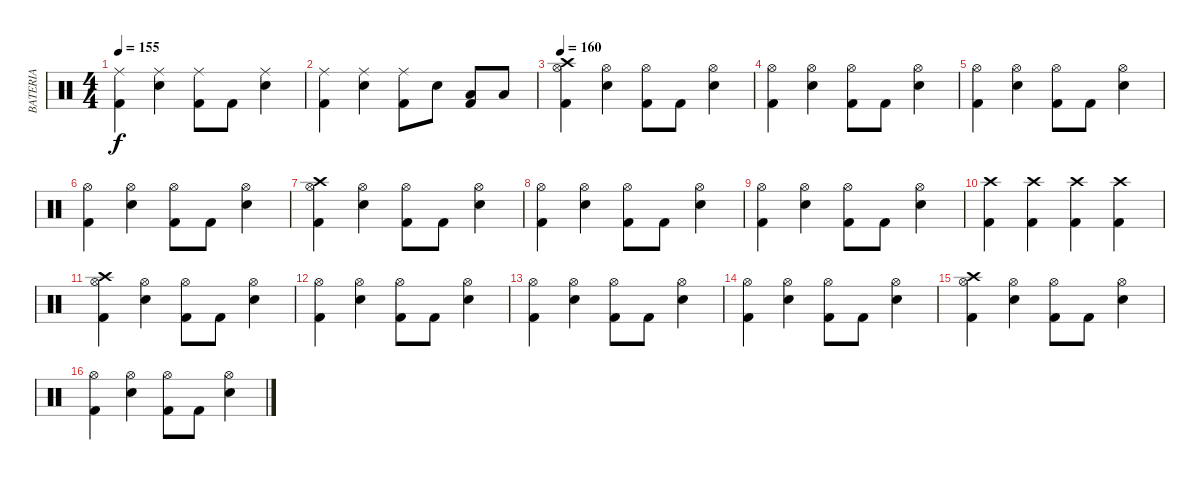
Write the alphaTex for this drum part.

\track ("BATERIA" "BATERIA") {instrument percussion}
\staff {score}
\articulation defaults
\ts (4 4)
\tempo 155
\clef neutral
\ks c
("Ride (middle)" "Kick (hit) 2").4{dy f} ("Ride (middle)" "Snare (hit) 2").4 ("Ride (middle)" "Kick (hit) 2").8 "Kick (hit) 2".8 ("Ride (middle)" "Snare (hit) 2").4 |
("Ride (middle)" "Kick (hit) 2").4 ("Ride (middle)" "Snare (hit) 2").4 ("Ride (middle)" "Kick (hit) 2").8 "Snare (hit) 2".8 ("Low Floor Tom (hit)" "Kick (hit) 2").8 "Low Floor Tom (hit)".8 |
\tempo 160
("Crash high (hit)" "Hi-Hat (open)" "Kick (hit) 2").4 ("Hi-Hat (open)" "Snare (hit) 2").4 ("Hi-Hat (open)" "Kick (hit) 2").8 "Kick (hit) 2".8 ("Hi-Hat (open)" "Snare (hit) 2").4 |
("Hi-Hat (open)" "Kick (hit) 2").4 ("Hi-Hat (open)" "Snare (hit) 2").4 ("Hi-Hat (open)" "Kick (hit) 2").8 "Kick (hit) 2".8 ("Hi-Hat (open)" "Snare (hit) 2").4 |
("Hi-Hat (open)" "Kick (hit) 2").4 ("Hi-Hat (open)" "Snare (hit) 2").4 ("Hi-Hat (open)" "Kick (hit) 2").8 "Kick (hit) 2".8 ("Hi-Hat (open)" "Snare (hit) 2").4 |
("Hi-Hat (open)" "Kick (hit) 2").4 ("Hi-Hat (open)" "Snare (hit) 2").4 ("Hi-Hat (open)" "Kick (hit) 2").8 "Kick (hit) 2".8 ("Hi-Hat (open)" "Snare (hit) 2").4 |
("Crash high (hit)" "Hi-Hat (open)" "Kick (hit) 2").4 ("Hi-Hat (open)" "Snare (hit) 2").4 ("Hi-Hat (open)" "Kick (hit) 2").8 "Kick (hit) 2".8 ("Hi-Hat (open)" "Snare (hit) 2").4 |
("Hi-Hat (open)" "Kick (hit) 2").4 ("Hi-Hat (open)" "Snare (hit) 2").4 ("Hi-Hat (open)" "Kick (hit) 2").8 "Kick (hit) 2".8 ("Hi-Hat (open)" "Snare (hit) 2").4 |
("Hi-Hat (open)" "Kick (hit) 2").4 ("Hi-Hat (open)" "Snare (hit) 2").4 ("Hi-Hat (open)" "Kick (hit) 2").8 "Kick (hit) 2".8 ("Hi-Hat (open)" "Snare (hit) 2").4 |
("Crash high (hit)" "Kick (hit) 2").4 ("Crash high (hit)" "Kick (hit) 2").4 ("Crash high (hit)" "Kick (hit) 2").4 ("Crash high (hit)" "Kick (hit) 2").4 |
("Crash high (hit)" "Hi-Hat (open)" "Kick (hit) 2").4 ("Hi-Hat (open)" "Snare (hit) 2").4 ("Hi-Hat (open)" "Kick (hit) 2").8 "Kick (hit) 2".8 ("Hi-Hat (open)" "Snare (hit) 2").4 |
("Hi-Hat (open)" "Kick (hit) 2").4 ("Hi-Hat (open)" "Snare (hit) 2").4 ("Hi-Hat (open)" "Kick (hit) 2").8 "Kick (hit) 2".8 ("Hi-Hat (open)" "Snare (hit) 2").4 |
("Hi-Hat (open)" "Kick (hit) 2").4 ("Hi-Hat (open)" "Snare (hit) 2").4 ("Hi-Hat (open)" "Kick (hit) 2").8 "Kick (hit) 2".8 ("Hi-Hat (open)" "Snare (hit) 2").4 |
("Hi-Hat (open)" "Kick (hit) 2").4 ("Hi-Hat (open)" "Snare (hit) 2").4 ("Hi-Hat (open)" "Kick (hit) 2").8 "Kick (hit) 2".8 ("Hi-Hat (open)" "Snare (hit) 2").4 |
("Crash high (hit)" "Hi-Hat (open)" "Kick (hit) 2").4 ("Hi-Hat (open)" "Snare (hit) 2").4 ("Hi-Hat (open)" "Kick (hit) 2").8 "Kick (hit) 2".8 ("Hi-Hat (open)" "Snare (hit) 2").4 |
("Hi-Hat (open)" "Kick (hit) 2").4 ("Hi-Hat (open)" "Snare (hit) 2").4 ("Hi-Hat (open)" "Kick (hit) 2").8 "Kick (hit) 2".8 ("Hi-Hat (open)" "Snare (hit) 2").4
